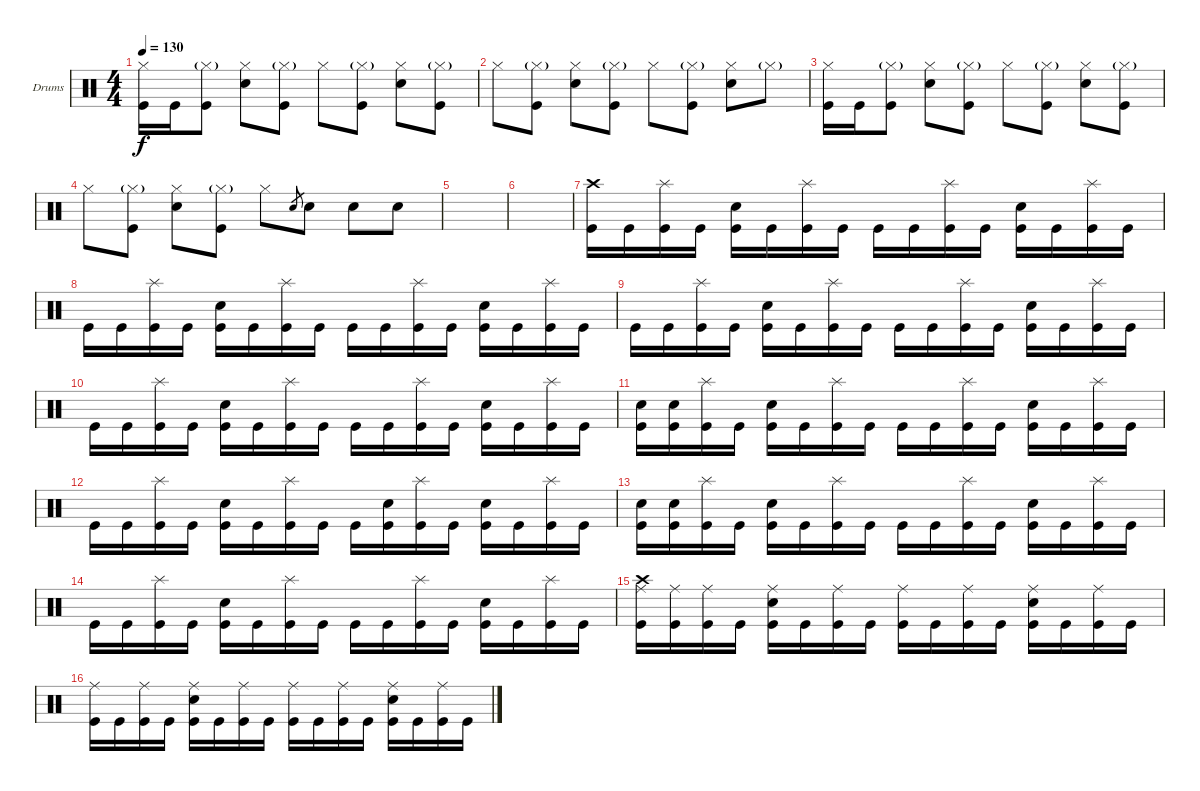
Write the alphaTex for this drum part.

\bracketExtendMode groupsimilarinstruments
\firstSystemTrackNameOrientation horizontal
\otherSystemsTrackNameOrientation horizontal
\track ("Drumkit" "Drums") {instrument percussion}
\staff {score}
\articulation defaults
\ts (4 4)
\tempo 130
\clef neutral
\ks c
("Kick (hit)" "Hi-Hat (closed)").16{dy f} "Kick (hit)".16 ("Kick (hit)" "Hi-Hat (closed)"{g}).8 ("Snare (hit) 2" "Hi-Hat (closed)").8 ("Hi-Hat (closed)"{g} "Kick (hit)").8 "Hi-Hat (closed)".8 ("Hi-Hat (closed)"{g} "Kick (hit)").8 ("Snare (hit) 2" "Hi-Hat (closed)").8 ("Hi-Hat (closed)"{g} "Kick (hit)").8 |
"Hi-Hat (closed)".8 ("Hi-Hat (closed)"{g} "Kick (hit)").8 ("Snare (hit) 2" "Hi-Hat (closed)").8 ("Hi-Hat (closed)"{g} "Kick (hit)").8 "Hi-Hat (closed)".8 ("Kick (hit)" "Hi-Hat (closed)"{g}).8 ("Snare (hit) 2" "Hi-Hat (closed)").8 "Hi-Hat (closed)"{g}.8 |
("Kick (hit)" "Hi-Hat (closed)").16 "Kick (hit)".16 ("Kick (hit)" "Hi-Hat (closed)"{g}).8 ("Snare (hit) 2" "Hi-Hat (closed)").8 ("Kick (hit)" "Hi-Hat (closed)"{g}).8 "Hi-Hat (closed)".8 ("Kick (hit)" "Hi-Hat (closed)"{g}).8 ("Snare (hit) 2" "Hi-Hat (closed)").8 ("Kick (hit)" "Hi-Hat (closed)"{g}).8 |
"Hi-Hat (closed)".8 ("Kick (hit)" "Hi-Hat (closed)"{g}).8 ("Snare (hit) 2" "Hi-Hat (closed)").8 ("Kick (hit)" "Hi-Hat (closed)"{g}).8 "Hi-Hat (closed)".8 "Snare (hit) 2".8{gr} "Snare (hit) 2".8 "Snare (hit) 2".8 "Snare (hit) 2".8 |
|
|
("Kick (hit)" "Crash high (hit)").16 "Kick (hit)".16 ("Kick (hit)" "Splash (hit)").16 "Kick (hit)".16 ("Kick (hit)" "Snare (hit) 2").16 "Kick (hit)".16 ("Kick (hit)" "Splash (hit)").16 "Kick (hit)".16 "Kick (hit)".16 "Kick (hit)".16 ("Kick (hit)" "Splash (hit)").16 "Kick (hit)".16 ("Kick (hit)" "Snare (hit) 2").16 "Kick (hit)".16 ("Kick (hit)" "Splash (hit)").16 "Kick (hit)".16 |
"Kick (hit)".16 "Kick (hit)".16 ("Kick (hit)" "Splash (hit)").16 "Kick (hit)".16 ("Kick (hit)" "Snare (hit) 2").16 "Kick (hit)".16 ("Kick (hit)" "Splash (hit)").16 "Kick (hit)".16 "Kick (hit)".16 "Kick (hit)".16 ("Kick (hit)" "Splash (hit)").16 "Kick (hit)".16 ("Kick (hit)" "Snare (hit) 2").16 "Kick (hit)".16 ("Kick (hit)" "Splash (hit)").16 "Kick (hit)".16 |
"Kick (hit)".16 "Kick (hit)".16 ("Kick (hit)" "Splash (hit)").16 "Kick (hit)".16 ("Kick (hit)" "Snare (hit) 2").16 "Kick (hit)".16 ("Kick (hit)" "Splash (hit)").16 "Kick (hit)".16 "Kick (hit)".16 "Kick (hit)".16 ("Kick (hit)" "Splash (hit)").16 "Kick (hit)".16 ("Kick (hit)" "Snare (hit) 2").16 "Kick (hit)".16 ("Kick (hit)" "Splash (hit)").16 "Kick (hit)".16 |
"Kick (hit)".16 "Kick (hit)".16 ("Kick (hit)" "Splash (hit)").16 "Kick (hit)".16 ("Kick (hit)" "Snare (hit) 2").16 "Kick (hit)".16 ("Kick (hit)" "Splash (hit)").16 "Kick (hit)".16 "Kick (hit)".16 "Kick (hit)".16 ("Kick (hit)" "Splash (hit)").16 "Kick (hit)".16 ("Kick (hit)" "Snare (hit) 2").16 "Kick (hit)".16 ("Kick (hit)" "Splash (hit)").16 "Kick (hit)".16 |
("Kick (hit)" "Snare (hit) 2").16 ("Kick (hit)" "Snare (hit) 2").16 ("Kick (hit)" "Splash (hit)").16 "Kick (hit)".16 ("Kick (hit)" "Snare (hit) 2").16 "Kick (hit)".16 ("Kick (hit)" "Splash (hit)").16 "Kick (hit)".16 "Kick (hit)".16 "Kick (hit)".16 ("Kick (hit)" "Splash (hit)").16 "Kick (hit)".16 ("Kick (hit)" "Snare (hit) 2").16 "Kick (hit)".16 ("Kick (hit)" "Splash (hit)").16 "Kick (hit)".16 |
"Kick (hit)".16 "Kick (hit)".16 ("Kick (hit)" "Splash (hit)").16 "Kick (hit)".16 ("Kick (hit)" "Snare (hit) 2").16 "Kick (hit)".16 ("Kick (hit)" "Splash (hit)").16 "Kick (hit)".16 "Kick (hit)".16 ("Kick (hit)" "Snare (hit) 2").16 ("Kick (hit)" "Splash (hit)").16 "Kick (hit)".16 ("Kick (hit)" "Snare (hit) 2").16 "Kick (hit)".16 ("Kick (hit)" "Splash (hit)").16 "Kick (hit)".16 |
("Kick (hit)" "Snare (hit) 2").16 ("Kick (hit)" "Snare (hit) 2").16 ("Kick (hit)" "Splash (hit)").16 "Kick (hit)".16 ("Kick (hit)" "Snare (hit) 2").16 "Kick (hit)".16 ("Kick (hit)" "Splash (hit)").16 "Kick (hit)".16 "Kick (hit)".16 "Kick (hit)".16 ("Kick (hit)" "Splash (hit)").16 "Kick (hit)".16 ("Kick (hit)" "Snare (hit) 2").16 "Kick (hit)".16 ("Kick (hit)" "Splash (hit)").16 "Kick (hit)".16 |
"Kick (hit)".16 "Kick (hit)".16 ("Kick (hit)" "Splash (hit)").16 "Kick (hit)".16 ("Kick (hit)" "Snare (hit) 2").16 "Kick (hit)".16 ("Kick (hit)" "Splash (hit)").16 "Kick (hit)".16 "Kick (hit)".16 "Kick (hit)".16 ("Kick (hit)" "Splash (hit)").16 "Kick (hit)".16 ("Kick (hit)" "Snare (hit) 2").16 "Kick (hit)".16 ("Kick (hit)" "Splash (hit)").16 "Kick (hit)".16 |
("Kick (hit)" "Crash high (hit)" "Ride (middle)").16 ("Kick (hit)" "Ride (middle)").16 ("Kick (hit)" "Ride (middle)").16 "Kick (hit)".16 ("Kick (hit)" "Snare (hit) 2" "Ride (middle)").16 "Kick (hit)".16 ("Kick (hit)" "Ride (middle)").16 "Kick (hit)".16 ("Kick (hit)" "Ride (middle)").16 "Kick (hit)".16 ("Kick (hit)" "Ride (middle)").16 "Kick (hit)".16 ("Kick (hit)" "Ride (middle)" "Snare (hit) 2").16 "Kick (hit)".16 ("Kick (hit)" "Ride (middle)").16 "Kick (hit)".16 |
("Kick (hit)" "Ride (middle)").16 "Kick (hit)".16 ("Kick (hit)" "Ride (middle)").16 "Kick (hit)".16 ("Kick (hit)" "Ride (middle)" "Snare (hit) 2").16 "Kick (hit)".16 ("Kick (hit)" "Ride (middle)").16 "Kick (hit)".16 ("Kick (hit)" "Ride (middle)").16 "Kick (hit)".16 ("Kick (hit)" "Ride (middle)").16 "Kick (hit)".16 ("Kick (hit)" "Ride (middle)" "Snare (hit) 2").16 "Kick (hit)".16 ("Kick (hit)" "Ride (middle)").16 "Kick (hit)".16
